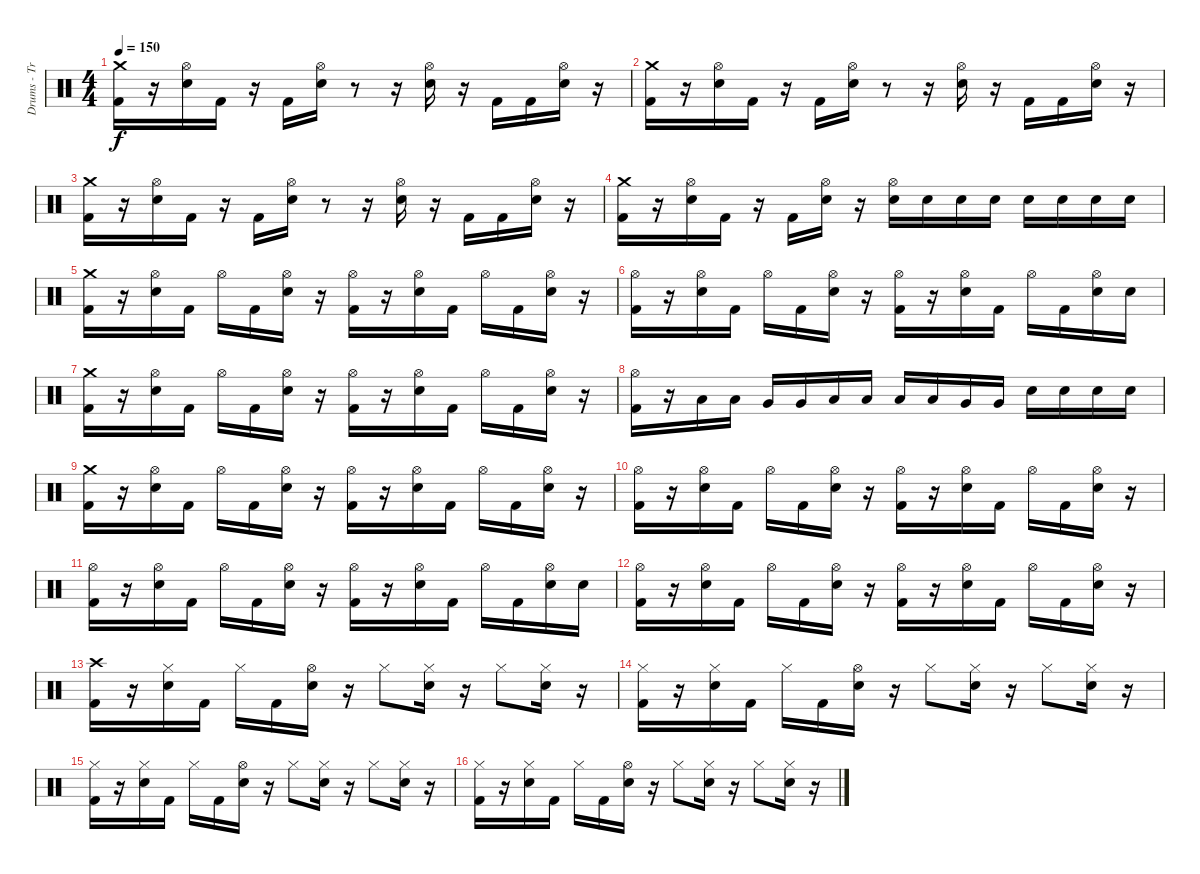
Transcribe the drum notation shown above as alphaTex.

\track ("Drums - Travis Barker" "Drums - Tr") {instrument percussion}
\staff {score}
\articulation defaults
\ts (4 4)
\tempo 150
\clef neutral
\ks c
("Crash medium (hit)" "Kick (hit) 2").16{dy f} r.16 ("Hi-Hat (open)" "Electric Snare (hit)").16 "Kick (hit) 2".16 r.16 "Kick (hit) 2".16 ("Hi-Hat (open)" "Electric Snare (hit)").16 r.8 r.16 ("Hi-Hat (open)" "Electric Snare (hit)").16 r.16 "Kick (hit) 2".16 "Kick (hit) 2".16 ("Hi-Hat (open)" "Electric Snare (hit)").16 r.16 |
("Crash medium (hit)" "Kick (hit) 2").16 r.16 ("Hi-Hat (open)" "Electric Snare (hit)").16 "Kick (hit) 2".16 r.16 "Kick (hit) 2".16 ("Hi-Hat (open)" "Electric Snare (hit)").16 r.8 r.16 ("Hi-Hat (open)" "Electric Snare (hit)").16 r.16 "Kick (hit) 2".16 "Kick (hit) 2".16 ("Hi-Hat (open)" "Electric Snare (hit)").16 r.16 |
("Crash medium (hit)" "Kick (hit) 2").16 r.16 ("Hi-Hat (open)" "Electric Snare (hit)").16 "Kick (hit) 2".16 r.16 "Kick (hit) 2".16 ("Hi-Hat (open)" "Electric Snare (hit)").16 r.8 r.16 ("Hi-Hat (open)" "Electric Snare (hit)").16 r.16 "Kick (hit) 2".16 "Kick (hit) 2".16 ("Hi-Hat (open)" "Electric Snare (hit)").16 r.16 |
("Crash medium (hit)" "Kick (hit) 2").16 r.16 ("Hi-Hat (open)" "Electric Snare (hit)").16 "Kick (hit) 2".16 r.16 "Kick (hit) 2".16 ("Hi-Hat (open)" "Electric Snare (hit)").16 r.16 ("Hi-Hat (open)" "Electric Snare (hit)").16 "Electric Snare (hit)".16 "Electric Snare (hit)".16 "Electric Snare (hit)".16 "Electric Snare (hit)".16 "Electric Snare (hit)".16 "Electric Snare (hit)".16 "Electric Snare (hit)".16 |
("Crash medium (hit)" "Kick (hit) 2").16 r.16 ("Hi-Hat (open)" "Electric Snare (hit)").16 "Kick (hit) 2".16 "Hi-Hat (open)".16 "Kick (hit) 2".16 ("Hi-Hat (open)" "Electric Snare (hit)").16 r.16 ("Hi-Hat (open)" "Kick (hit) 2").16 r.16 ("Hi-Hat (open)" "Electric Snare (hit)").16 "Kick (hit) 2".16 "Hi-Hat (open)".16 "Kick (hit) 2".16 ("Hi-Hat (open)" "Electric Snare (hit)").16 r.16 |
("Hi-Hat (open)" "Kick (hit) 2").16 r.16 ("Hi-Hat (open)" "Electric Snare (hit)").16 "Kick (hit) 2".16 "Hi-Hat (open)".16 "Kick (hit) 2".16 ("Hi-Hat (open)" "Electric Snare (hit)").16 r.16 ("Hi-Hat (open)" "Kick (hit) 2").16 r.16 ("Hi-Hat (open)" "Electric Snare (hit)").16 "Kick (hit) 2".16 "Hi-Hat (open)".16 "Kick (hit) 2".16 ("Hi-Hat (open)" "Electric Snare (hit)").16 "Electric Snare (hit)".16 |
("Crash medium (hit)" "Kick (hit) 2").16 r.16 ("Hi-Hat (open)" "Electric Snare (hit)").16 "Kick (hit) 2".16 "Hi-Hat (open)".16 "Kick (hit) 2".16 ("Hi-Hat (open)" "Electric Snare (hit)").16 r.16 ("Hi-Hat (open)" "Kick (hit) 2").16 r.16 ("Hi-Hat (open)" "Electric Snare (hit)").16 "Kick (hit) 2".16 "Hi-Hat (open)".16 "Kick (hit) 2".16 ("Hi-Hat (open)" "Electric Snare (hit)").16 r.16 |
("Hi-Hat (open)" "Kick (hit) 2").16 r.16 "Low Tom (hit)".16 "Low Tom (hit)".16 "Very Low Tom (hit)".16 "Very Low Tom (hit)".16 "Low Floor Tom (hit)".16 "Low Floor Tom (hit)".16 "Low Tom (hit)".16 "Low Tom (hit)".16 "Very Low Tom (hit)".16 "Very Low Tom (hit)".16 "Electric Snare (hit)".16 "Electric Snare (hit)".16 "Electric Snare (hit)".16 "Electric Snare (hit)".16 |
("Crash medium (hit)" "Kick (hit) 2").16 r.16 ("Hi-Hat (open)" "Electric Snare (hit)").16 "Kick (hit) 2".16 "Hi-Hat (open)".16 "Kick (hit) 2".16 ("Hi-Hat (open)" "Electric Snare (hit)").16 r.16 ("Hi-Hat (open)" "Kick (hit) 2").16 r.16 ("Hi-Hat (open)" "Electric Snare (hit)").16 "Kick (hit) 2".16 "Hi-Hat (open)".16 "Kick (hit) 2".16 ("Hi-Hat (open)" "Electric Snare (hit)").16 r.16 |
("Hi-Hat (open)" "Kick (hit) 2").16 r.16 ("Hi-Hat (open)" "Electric Snare (hit)").16 "Kick (hit) 2".16 "Hi-Hat (open)".16 "Kick (hit) 2".16 ("Hi-Hat (open)" "Electric Snare (hit)").16 r.16 ("Hi-Hat (open)" "Kick (hit) 2").16 r.16 ("Hi-Hat (open)" "Electric Snare (hit)").16 "Kick (hit) 2".16 "Hi-Hat (open)".16 "Kick (hit) 2".16 ("Hi-Hat (open)" "Electric Snare (hit)").16 r.16 |
("Hi-Hat (open)" "Kick (hit) 2").16 r.16 ("Hi-Hat (open)" "Electric Snare (hit)").16 "Kick (hit) 2".16 "Hi-Hat (open)".16 "Kick (hit) 2".16 ("Hi-Hat (open)" "Electric Snare (hit)").16 r.16 ("Hi-Hat (open)" "Kick (hit) 2").16 r.16 ("Hi-Hat (open)" "Electric Snare (hit)").16 "Kick (hit) 2".16 "Hi-Hat (open)".16 "Kick (hit) 2".16 ("Hi-Hat (open)" "Electric Snare (hit)").16 "Electric Snare (hit)".16 |
("Hi-Hat (open)" "Kick (hit) 2").16 r.16 ("Hi-Hat (open)" "Electric Snare (hit)").16 "Kick (hit) 2".16 "Hi-Hat (open)".16 "Kick (hit) 2".16 ("Hi-Hat (open)" "Electric Snare (hit)").16 r.16 ("Hi-Hat (open)" "Kick (hit) 2").16 r.16 ("Hi-Hat (open)" "Electric Snare (hit)").16 "Kick (hit) 2".16 "Hi-Hat (open)".16 "Kick (hit) 2".16 ("Hi-Hat (open)" "Electric Snare (hit)").16 r.16 |
("Crash high (hit)" "Kick (hit) 2").16 r.16 ("Hi-Hat (closed)" "Electric Snare (hit)").16 "Kick (hit) 2".16 "Hi-Hat (closed)".16 "Kick (hit) 2".16 ("Hi-Hat (open)" "Electric Snare (hit)").16 r.16 "Hi-Hat (closed)".8 ("Hi-Hat (closed)" "Electric Snare (hit)").16 r.16 "Hi-Hat (closed)".8 ("Hi-Hat (closed)" "Electric Snare (hit)").16 r.16 |
("Hi-Hat (closed)" "Kick (hit) 2").16 r.16 ("Hi-Hat (closed)" "Electric Snare (hit)").16 "Kick (hit) 2".16 "Hi-Hat (closed)".16 "Kick (hit) 2".16 ("Hi-Hat (open)" "Electric Snare (hit)").16 r.16 "Hi-Hat (closed)".8 ("Hi-Hat (closed)" "Electric Snare (hit)").16 r.16 "Hi-Hat (closed)".8 ("Hi-Hat (closed)" "Electric Snare (hit)").16 r.16 |
("Hi-Hat (closed)" "Kick (hit) 2").16 r.16 ("Hi-Hat (closed)" "Electric Snare (hit)").16 "Kick (hit) 2".16 "Hi-Hat (closed)".16 "Kick (hit) 2".16 ("Hi-Hat (open)" "Electric Snare (hit)").16 r.16 "Hi-Hat (closed)".8 ("Hi-Hat (closed)" "Electric Snare (hit)").16 r.16 "Hi-Hat (closed)".8 ("Hi-Hat (closed)" "Electric Snare (hit)").16 r.16 |
("Hi-Hat (closed)" "Kick (hit) 2").16 r.16 ("Hi-Hat (closed)" "Electric Snare (hit)").16 "Kick (hit) 2".16 "Hi-Hat (closed)".16 "Kick (hit) 2".16 ("Hi-Hat (open)" "Electric Snare (hit)").16 r.16 "Hi-Hat (closed)".8 ("Hi-Hat (closed)" "Electric Snare (hit)").16 r.16 "Hi-Hat (closed)".8 ("Hi-Hat (closed)" "Electric Snare (hit)").16 r.16
